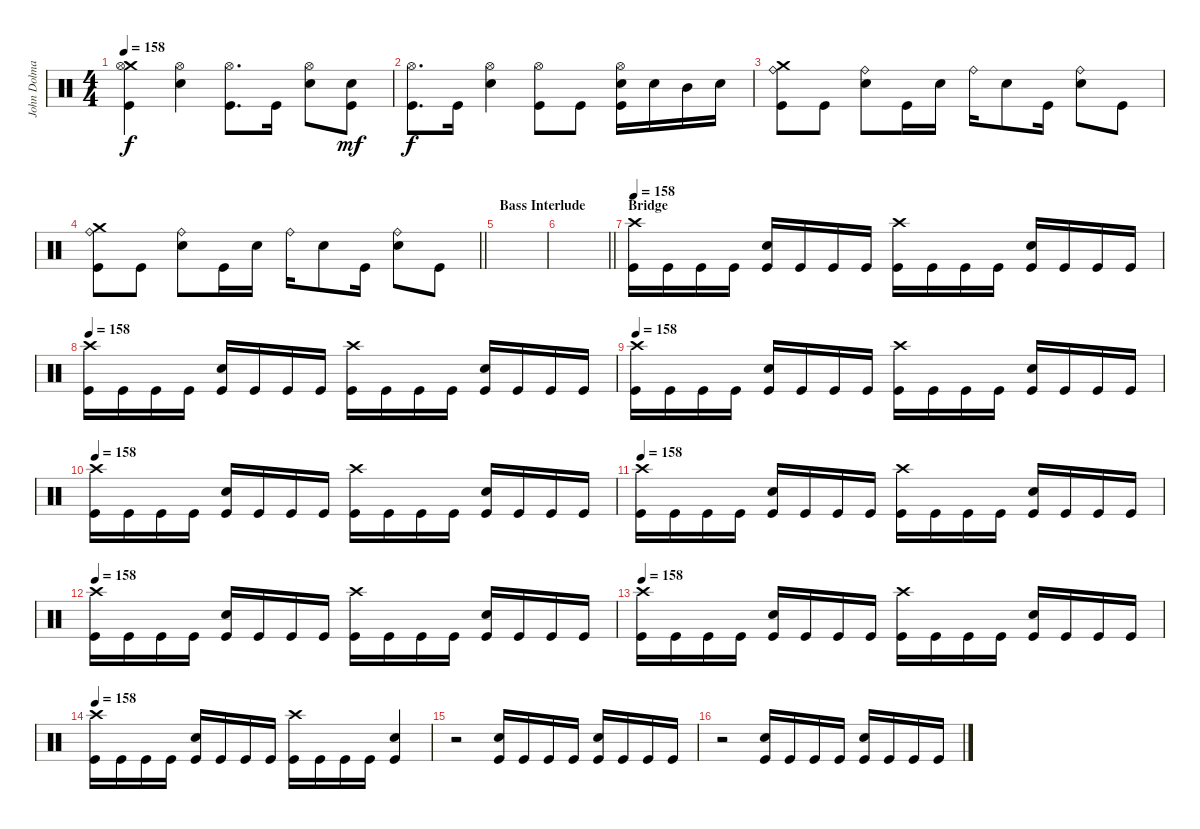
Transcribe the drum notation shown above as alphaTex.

\track ("John Dolmayan (drums)" "John Dolma") {instrument percussion}
\staff {score}
\articulation defaults
\ts (4 4)
\tempo 158
\clef neutral
\ks c
("Crash medium (hit)" "Hi-Hat (open)" "Kick (hit)").4{dy f} ("Hi-Hat (open)" "Snare (hit) 2").4 ("Hi-Hat (open)" "Kick (hit)").8{d} "Kick (hit)".16 ("Hi-Hat (open)" "Snare (hit) 2").8 ("Snare (hit) 2" "Kick (hit)").8{dy mf} |
("Hi-Hat (open)" "Kick (hit)").8{d dy f} "Kick (hit)".16 ("Hi-Hat (open)" "Snare (hit) 2").4 ("Hi-Hat (open)" "Kick (hit)").8 "Kick (hit)".8 ("Hi-Hat (open)" "Snare (hit) 2" "Kick (hit)").16 "Snare (hit) 2".16 "Mid Tom (hit)".16 "Snare (hit) 2".16 |
("Crash medium (hit)" "Ride (bell)" "Kick (hit)").8 "Kick (hit)".8 ("Ride (bell)" "Snare (hit) 2").8 "Kick (hit)".16 "Snare (hit) 2".16 "Ride (bell)".16 "Snare (hit) 2".8 "Kick (hit)".16 ("Ride (bell)" "Snare (hit) 2").8 "Kick (hit)".8 |
\barLineRight lightlight
("Crash medium (hit)" "Ride (bell)" "Kick (hit)").8 "Kick (hit)".8 ("Ride (bell)" "Snare (hit) 2").8 "Kick (hit)".16 "Snare (hit) 2".16 "Ride (bell)".16 "Snare (hit) 2".8 "Kick (hit)".16 ("Ride (bell)" "Snare (hit) 2").8 "Kick (hit)".8 |
\section ("" "Bass Interlude")
|
\barLineRight lightlight
|
\section ("" "Bridge")
\tempo 158
("Crash high (hit)" "Kick (hit)").16 "Kick (hit)".16 "Kick (hit)".16 "Kick (hit)".16 ("Snare (hit) 2" "Kick (hit)").16 "Kick (hit)".16 "Kick (hit)".16 "Kick (hit)".16 ("Crash high (hit)" "Kick (hit)").16 "Kick (hit)".16 "Kick (hit)".16 "Kick (hit)".16 ("Snare (hit) 2" "Kick (hit)").16 "Kick (hit)".16 "Kick (hit)".16 "Kick (hit)".16 |
\tempo 158
("Crash high (hit)" "Kick (hit)").16 "Kick (hit)".16 "Kick (hit)".16 "Kick (hit)".16 ("Snare (hit) 2" "Kick (hit)").16 "Kick (hit)".16 "Kick (hit)".16 "Kick (hit)".16 ("Crash high (hit)" "Kick (hit)").16 "Kick (hit)".16 "Kick (hit)".16 "Kick (hit)".16 ("Snare (hit) 2" "Kick (hit)").16 "Kick (hit)".16 "Kick (hit)".16 "Kick (hit)".16 |
\tempo 158
("Crash high (hit)" "Kick (hit)").16 "Kick (hit)".16 "Kick (hit)".16 "Kick (hit)".16 ("Snare (hit) 2" "Kick (hit)").16 "Kick (hit)".16 "Kick (hit)".16 "Kick (hit)".16 ("Crash high (hit)" "Kick (hit)").16 "Kick (hit)".16 "Kick (hit)".16 "Kick (hit)".16 ("Snare (hit) 2" "Kick (hit)").16 "Kick (hit)".16 "Kick (hit)".16 "Kick (hit)".16 |
\tempo 158
("Crash high (hit)" "Kick (hit)").16 "Kick (hit)".16 "Kick (hit)".16 "Kick (hit)".16 ("Snare (hit) 2" "Kick (hit)").16 "Kick (hit)".16 "Kick (hit)".16 "Kick (hit)".16 ("Crash high (hit)" "Kick (hit)").16 "Kick (hit)".16 "Kick (hit)".16 "Kick (hit)".16 ("Snare (hit) 2" "Kick (hit)").16 "Kick (hit)".16 "Kick (hit)".16 "Kick (hit)".16 |
\tempo 158
("Crash high (hit)" "Kick (hit)").16 "Kick (hit)".16 "Kick (hit)".16 "Kick (hit)".16 ("Snare (hit) 2" "Kick (hit)").16 "Kick (hit)".16 "Kick (hit)".16 "Kick (hit)".16 ("Crash high (hit)" "Kick (hit)").16 "Kick (hit)".16 "Kick (hit)".16 "Kick (hit)".16 ("Snare (hit) 2" "Kick (hit)").16 "Kick (hit)".16 "Kick (hit)".16 "Kick (hit)".16 |
\tempo 158
("Crash high (hit)" "Kick (hit)").16 "Kick (hit)".16 "Kick (hit)".16 "Kick (hit)".16 ("Snare (hit) 2" "Kick (hit)").16 "Kick (hit)".16 "Kick (hit)".16 "Kick (hit)".16 ("Crash high (hit)" "Kick (hit)").16 "Kick (hit)".16 "Kick (hit)".16 "Kick (hit)".16 ("Snare (hit) 2" "Kick (hit)").16 "Kick (hit)".16 "Kick (hit)".16 "Kick (hit)".16 |
\tempo 158
("Crash high (hit)" "Kick (hit)").16 "Kick (hit)".16 "Kick (hit)".16 "Kick (hit)".16 ("Snare (hit) 2" "Kick (hit)").16 "Kick (hit)".16 "Kick (hit)".16 "Kick (hit)".16 ("Crash high (hit)" "Kick (hit)").16 "Kick (hit)".16 "Kick (hit)".16 "Kick (hit)".16 ("Snare (hit) 2" "Kick (hit)").16 "Kick (hit)".16 "Kick (hit)".16 "Kick (hit)".16 |
\tempo 158
("Crash high (hit)" "Kick (hit)").16 "Kick (hit)".16 "Kick (hit)".16 "Kick (hit)".16 ("Snare (hit) 2" "Kick (hit)").16 "Kick (hit)".16 "Kick (hit)".16 "Kick (hit)".16 ("Crash high (hit)" "Kick (hit)").16 "Kick (hit)".16 "Kick (hit)".16 "Kick (hit)".16 ("Snare (hit) 2" "Kick (hit)").4 |
r.2 ("Snare (hit) 2" "Kick (hit)").16 "Kick (hit)".16 "Kick (hit)".16 "Kick (hit)".16 ("Snare (hit) 2" "Kick (hit)").16 "Kick (hit)".16 "Kick (hit)".16 "Kick (hit)".16 |
r.2 ("Snare (hit) 2" "Kick (hit)").16 "Kick (hit)".16 "Kick (hit)".16 "Kick (hit)".16 ("Snare (hit) 2" "Kick (hit)").16 "Kick (hit)".16 "Kick (hit)".16 "Kick (hit)".16
